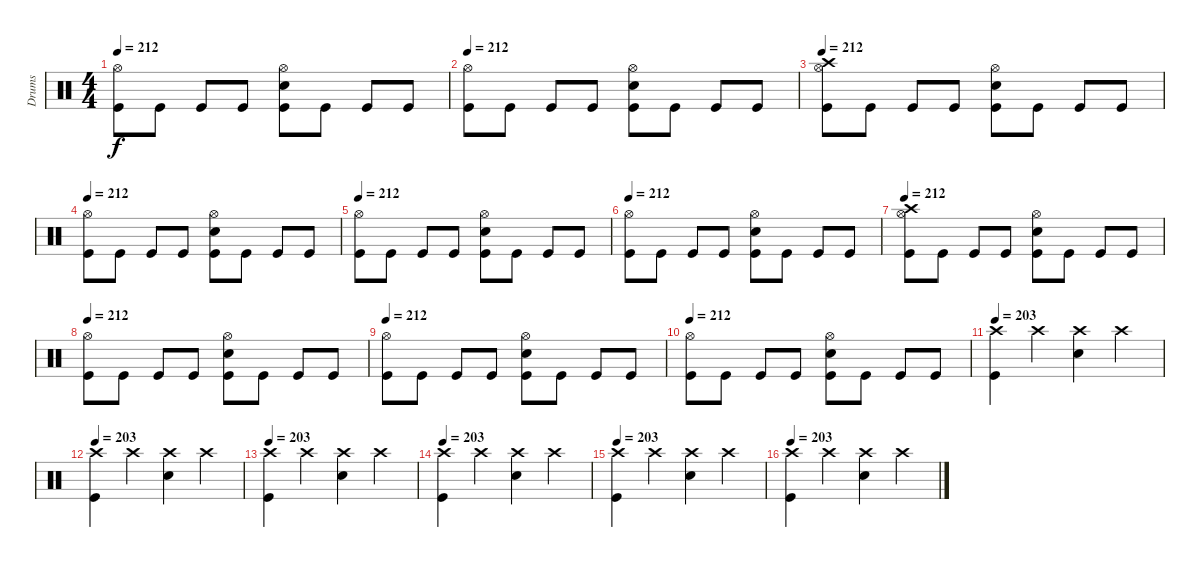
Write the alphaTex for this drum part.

\track ("Drums" "Drums") {instrument percussion}
\staff {score}
\articulation defaults
\ts (4 4)
\tempo 212
\clef neutral
\ks c
("Hi-Hat (open)" "Kick (hit)").8{dy f} "Kick (hit)".8 "Kick (hit)".8 "Kick (hit)".8 ("Electric Snare (hit)" "Hi-Hat (open)" "Kick (hit)").8 "Kick (hit)".8 "Kick (hit)".8 "Kick (hit)".8 |
\tempo 212
("Hi-Hat (open)" "Kick (hit)").8 "Kick (hit)".8 "Kick (hit)".8 "Kick (hit)".8 ("Electric Snare (hit)" "Hi-Hat (open)" "Kick (hit)").8 "Kick (hit)".8 "Kick (hit)".8 "Kick (hit)".8 |
\tempo 212
("Crash high (hit)" "Hi-Hat (open)" "Kick (hit)").8 "Kick (hit)".8 "Kick (hit)".8 "Kick (hit)".8 ("Electric Snare (hit)" "Hi-Hat (open)" "Kick (hit)").8 "Kick (hit)".8 "Kick (hit)".8 "Kick (hit)".8 |
\tempo 212
("Hi-Hat (open)" "Kick (hit)").8 "Kick (hit)".8 "Kick (hit)".8 "Kick (hit)".8 ("Electric Snare (hit)" "Hi-Hat (open)" "Kick (hit)").8 "Kick (hit)".8 "Kick (hit)".8 "Kick (hit)".8 |
\tempo 212
("Hi-Hat (open)" "Kick (hit)").8 "Kick (hit)".8 "Kick (hit)".8 "Kick (hit)".8 ("Electric Snare (hit)" "Hi-Hat (open)" "Kick (hit)").8 "Kick (hit)".8 "Kick (hit)".8 "Kick (hit)".8 |
\tempo 212
("Hi-Hat (open)" "Kick (hit)").8 "Kick (hit)".8 "Kick (hit)".8 "Kick (hit)".8 ("Electric Snare (hit)" "Hi-Hat (open)" "Kick (hit)").8 "Kick (hit)".8 "Kick (hit)".8 "Kick (hit)".8 |
\tempo 212
("Crash high (hit)" "Hi-Hat (open)" "Kick (hit)").8 "Kick (hit)".8 "Kick (hit)".8 "Kick (hit)".8 ("Electric Snare (hit)" "Hi-Hat (open)" "Kick (hit)").8 "Kick (hit)".8 "Kick (hit)".8 "Kick (hit)".8 |
\tempo 212
("Hi-Hat (open)" "Kick (hit)").8 "Kick (hit)".8 "Kick (hit)".8 "Kick (hit)".8 ("Electric Snare (hit)" "Hi-Hat (open)" "Kick (hit)").8 "Kick (hit)".8 "Kick (hit)".8 "Kick (hit)".8 |
\tempo 212
("Hi-Hat (open)" "Kick (hit)").8 "Kick (hit)".8 "Kick (hit)".8 "Kick (hit)".8 ("Electric Snare (hit)" "Hi-Hat (open)" "Kick (hit)").8 "Kick (hit)".8 "Kick (hit)".8 "Kick (hit)".8 |
\tempo 212
("Hi-Hat (open)" "Kick (hit)").8 "Kick (hit)".8 "Kick (hit)".8 "Kick (hit)".8 ("Electric Snare (hit)" "Hi-Hat (open)" "Kick (hit)").8 "Kick (hit)".8 "Kick (hit)".8 "Kick (hit)".8 |
\tempo 203
("Crash high (hit)" "Kick (hit)").4 "Crash high (hit)".4 ("Electric Snare (hit)" "Crash high (hit)").4 "Crash high (hit)".4 |
\tempo 203
("Crash high (hit)" "Kick (hit)").4 "Crash high (hit)".4 ("Electric Snare (hit)" "Crash high (hit)").4 "Crash high (hit)".4 |
\tempo 203
("Crash high (hit)" "Kick (hit)").4 "Crash high (hit)".4 ("Electric Snare (hit)" "Crash high (hit)").4 "Crash high (hit)".4 |
\tempo 203
("Crash high (hit)" "Kick (hit)").4 "Crash high (hit)".4 ("Electric Snare (hit)" "Crash high (hit)").4 "Crash high (hit)".4 |
\tempo 203
("Crash high (hit)" "Kick (hit)").4 "Crash high (hit)".4 ("Electric Snare (hit)" "Crash high (hit)").4 "Crash high (hit)".4 |
\tempo 203
("Crash high (hit)" "Kick (hit)").4 "Crash high (hit)".4 ("Electric Snare (hit)" "Crash high (hit)").4 "Crash high (hit)".4
